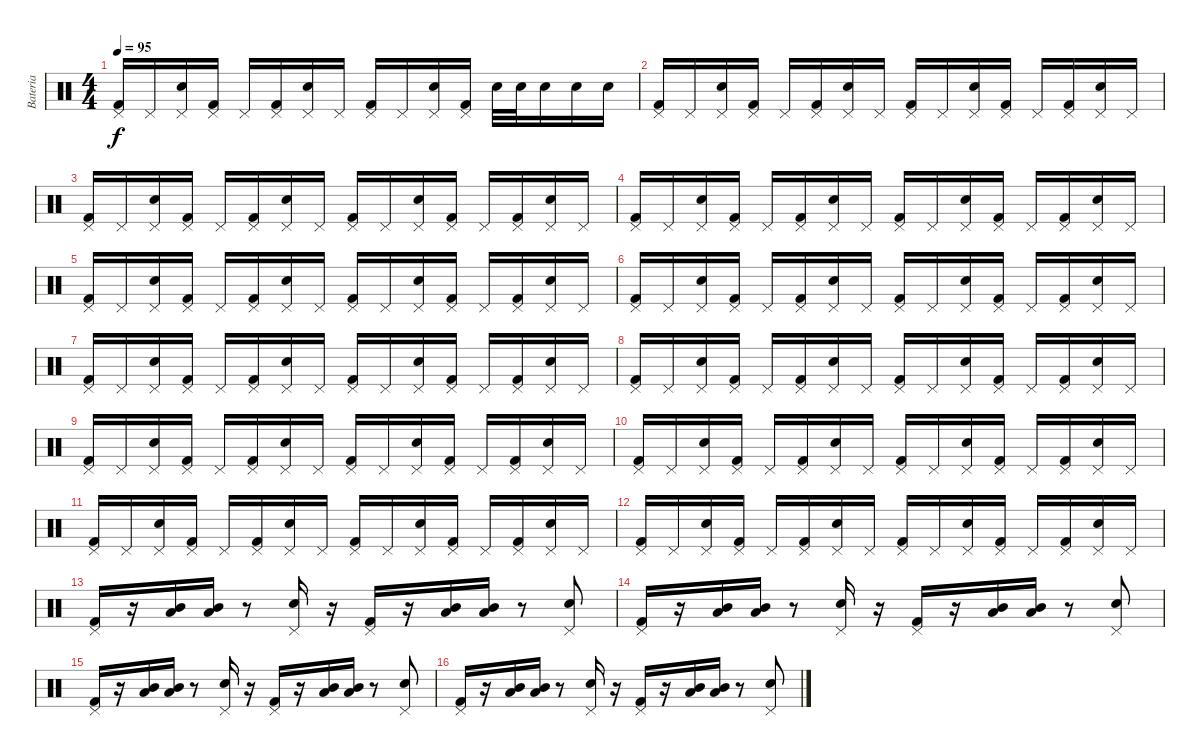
\track ("Bateria" "Bateria") {instrument percussion}
\staff {score}
\articulation defaults
\ts (4 4)
\tempo 95
\clef neutral
\ks c
("Pedal Hi-Hat (hit)" "Kick (hit) 2").16{dy f} "Pedal Hi-Hat (hit)".16 ("Pedal Hi-Hat (hit)" "Electric Snare (hit)").16 ("Pedal Hi-Hat (hit)" "Kick (hit) 2").16 "Pedal Hi-Hat (hit)".16 ("Pedal Hi-Hat (hit)" "Kick (hit) 2").16 ("Pedal Hi-Hat (hit)" "Electric Snare (hit)").16 "Pedal Hi-Hat (hit)".16 ("Pedal Hi-Hat (hit)" "Kick (hit) 2").16 "Pedal Hi-Hat (hit)".16 ("Pedal Hi-Hat (hit)" "Electric Snare (hit)").16 ("Pedal Hi-Hat (hit)" "Kick (hit) 2").16 "Electric Snare (hit)".32 "Electric Snare (hit)".32 "Electric Snare (hit)".16 "Electric Snare (hit)".16 "Electric Snare (hit)".16 |
("Pedal Hi-Hat (hit)" "Kick (hit) 2").16 "Pedal Hi-Hat (hit)".16 ("Pedal Hi-Hat (hit)" "Electric Snare (hit)").16 ("Pedal Hi-Hat (hit)" "Kick (hit) 2").16 "Pedal Hi-Hat (hit)".16 ("Pedal Hi-Hat (hit)" "Kick (hit) 2").16 ("Pedal Hi-Hat (hit)" "Electric Snare (hit)").16 "Pedal Hi-Hat (hit)".16 ("Pedal Hi-Hat (hit)" "Kick (hit) 2").16 "Pedal Hi-Hat (hit)".16 ("Pedal Hi-Hat (hit)" "Electric Snare (hit)").16 ("Pedal Hi-Hat (hit)" "Kick (hit) 2").16 "Pedal Hi-Hat (hit)".16 ("Pedal Hi-Hat (hit)" "Kick (hit) 2").16 ("Pedal Hi-Hat (hit)" "Electric Snare (hit)").16 "Pedal Hi-Hat (hit)".16 |
("Pedal Hi-Hat (hit)" "Kick (hit) 2").16 "Pedal Hi-Hat (hit)".16 ("Pedal Hi-Hat (hit)" "Electric Snare (hit)").16 ("Pedal Hi-Hat (hit)" "Kick (hit) 2").16 "Pedal Hi-Hat (hit)".16 ("Pedal Hi-Hat (hit)" "Kick (hit) 2").16 ("Pedal Hi-Hat (hit)" "Electric Snare (hit)").16 "Pedal Hi-Hat (hit)".16 ("Pedal Hi-Hat (hit)" "Kick (hit) 2").16 "Pedal Hi-Hat (hit)".16 ("Pedal Hi-Hat (hit)" "Electric Snare (hit)").16 ("Pedal Hi-Hat (hit)" "Kick (hit) 2").16 "Pedal Hi-Hat (hit)".16 ("Pedal Hi-Hat (hit)" "Kick (hit) 2").16 ("Pedal Hi-Hat (hit)" "Electric Snare (hit)").16 "Pedal Hi-Hat (hit)".16 |
("Pedal Hi-Hat (hit)" "Kick (hit) 2").16 "Pedal Hi-Hat (hit)".16 ("Pedal Hi-Hat (hit)" "Electric Snare (hit)").16 ("Pedal Hi-Hat (hit)" "Kick (hit) 2").16 "Pedal Hi-Hat (hit)".16 ("Pedal Hi-Hat (hit)" "Kick (hit) 2").16 ("Pedal Hi-Hat (hit)" "Electric Snare (hit)").16 "Pedal Hi-Hat (hit)".16 ("Pedal Hi-Hat (hit)" "Kick (hit) 2").16 "Pedal Hi-Hat (hit)".16 ("Pedal Hi-Hat (hit)" "Electric Snare (hit)").16 ("Pedal Hi-Hat (hit)" "Kick (hit) 2").16 "Pedal Hi-Hat (hit)".16 ("Pedal Hi-Hat (hit)" "Kick (hit) 2").16 ("Pedal Hi-Hat (hit)" "Electric Snare (hit)").16 "Pedal Hi-Hat (hit)".16 |
("Pedal Hi-Hat (hit)" "Kick (hit) 2").16 "Pedal Hi-Hat (hit)".16 ("Pedal Hi-Hat (hit)" "Electric Snare (hit)").16 ("Pedal Hi-Hat (hit)" "Kick (hit) 2").16 "Pedal Hi-Hat (hit)".16 ("Pedal Hi-Hat (hit)" "Kick (hit) 2").16 ("Pedal Hi-Hat (hit)" "Electric Snare (hit)").16 "Pedal Hi-Hat (hit)".16 ("Pedal Hi-Hat (hit)" "Kick (hit) 2").16 "Pedal Hi-Hat (hit)".16 ("Pedal Hi-Hat (hit)" "Electric Snare (hit)").16 ("Pedal Hi-Hat (hit)" "Kick (hit) 2").16 "Pedal Hi-Hat (hit)".16 ("Pedal Hi-Hat (hit)" "Kick (hit) 2").16 ("Pedal Hi-Hat (hit)" "Electric Snare (hit)").16 "Pedal Hi-Hat (hit)".16 |
("Pedal Hi-Hat (hit)" "Kick (hit) 2").16 "Pedal Hi-Hat (hit)".16 ("Pedal Hi-Hat (hit)" "Electric Snare (hit)").16 ("Pedal Hi-Hat (hit)" "Kick (hit) 2").16 "Pedal Hi-Hat (hit)".16 ("Pedal Hi-Hat (hit)" "Kick (hit) 2").16 ("Pedal Hi-Hat (hit)" "Electric Snare (hit)").16 "Pedal Hi-Hat (hit)".16 ("Pedal Hi-Hat (hit)" "Kick (hit) 2").16 "Pedal Hi-Hat (hit)".16 ("Pedal Hi-Hat (hit)" "Electric Snare (hit)").16 ("Pedal Hi-Hat (hit)" "Kick (hit) 2").16 "Pedal Hi-Hat (hit)".16 ("Pedal Hi-Hat (hit)" "Kick (hit) 2").16 ("Pedal Hi-Hat (hit)" "Electric Snare (hit)").16 "Pedal Hi-Hat (hit)".16 |
("Pedal Hi-Hat (hit)" "Kick (hit) 2").16 "Pedal Hi-Hat (hit)".16 ("Pedal Hi-Hat (hit)" "Electric Snare (hit)").16 ("Pedal Hi-Hat (hit)" "Kick (hit) 2").16 "Pedal Hi-Hat (hit)".16 ("Pedal Hi-Hat (hit)" "Kick (hit) 2").16 ("Pedal Hi-Hat (hit)" "Electric Snare (hit)").16 "Pedal Hi-Hat (hit)".16 ("Pedal Hi-Hat (hit)" "Kick (hit) 2").16 "Pedal Hi-Hat (hit)".16 ("Pedal Hi-Hat (hit)" "Electric Snare (hit)").16 ("Pedal Hi-Hat (hit)" "Kick (hit) 2").16 "Pedal Hi-Hat (hit)".16 ("Pedal Hi-Hat (hit)" "Kick (hit) 2").16 ("Pedal Hi-Hat (hit)" "Electric Snare (hit)").16 "Pedal Hi-Hat (hit)".16 |
("Pedal Hi-Hat (hit)" "Kick (hit) 2").16 "Pedal Hi-Hat (hit)".16 ("Pedal Hi-Hat (hit)" "Electric Snare (hit)").16 ("Pedal Hi-Hat (hit)" "Kick (hit) 2").16 "Pedal Hi-Hat (hit)".16 ("Pedal Hi-Hat (hit)" "Kick (hit) 2").16 ("Pedal Hi-Hat (hit)" "Electric Snare (hit)").16 "Pedal Hi-Hat (hit)".16 ("Pedal Hi-Hat (hit)" "Kick (hit) 2").16 "Pedal Hi-Hat (hit)".16 ("Pedal Hi-Hat (hit)" "Electric Snare (hit)").16 ("Pedal Hi-Hat (hit)" "Kick (hit) 2").16 "Pedal Hi-Hat (hit)".16 ("Pedal Hi-Hat (hit)" "Kick (hit) 2").16 ("Pedal Hi-Hat (hit)" "Electric Snare (hit)").16 "Pedal Hi-Hat (hit)".16 |
("Pedal Hi-Hat (hit)" "Kick (hit) 2").16 "Pedal Hi-Hat (hit)".16 ("Pedal Hi-Hat (hit)" "Electric Snare (hit)").16 ("Pedal Hi-Hat (hit)" "Kick (hit) 2").16 "Pedal Hi-Hat (hit)".16 ("Pedal Hi-Hat (hit)" "Kick (hit) 2").16 ("Pedal Hi-Hat (hit)" "Electric Snare (hit)").16 "Pedal Hi-Hat (hit)".16 ("Pedal Hi-Hat (hit)" "Kick (hit) 2").16 "Pedal Hi-Hat (hit)".16 ("Pedal Hi-Hat (hit)" "Electric Snare (hit)").16 ("Pedal Hi-Hat (hit)" "Kick (hit) 2").16 "Pedal Hi-Hat (hit)".16 ("Pedal Hi-Hat (hit)" "Kick (hit) 2").16 ("Pedal Hi-Hat (hit)" "Electric Snare (hit)").16 "Pedal Hi-Hat (hit)".16 |
("Pedal Hi-Hat (hit)" "Kick (hit) 2").16 "Pedal Hi-Hat (hit)".16 ("Pedal Hi-Hat (hit)" "Electric Snare (hit)").16 ("Pedal Hi-Hat (hit)" "Kick (hit) 2").16 "Pedal Hi-Hat (hit)".16 ("Pedal Hi-Hat (hit)" "Kick (hit) 2").16 ("Pedal Hi-Hat (hit)" "Electric Snare (hit)").16 "Pedal Hi-Hat (hit)".16 ("Pedal Hi-Hat (hit)" "Kick (hit) 2").16 "Pedal Hi-Hat (hit)".16 ("Pedal Hi-Hat (hit)" "Electric Snare (hit)").16 ("Pedal Hi-Hat (hit)" "Kick (hit) 2").16 "Pedal Hi-Hat (hit)".16 ("Pedal Hi-Hat (hit)" "Kick (hit) 2").16 ("Pedal Hi-Hat (hit)" "Electric Snare (hit)").16 "Pedal Hi-Hat (hit)".16 |
("Pedal Hi-Hat (hit)" "Kick (hit) 2").16 "Pedal Hi-Hat (hit)".16 ("Pedal Hi-Hat (hit)" "Electric Snare (hit)").16 ("Pedal Hi-Hat (hit)" "Kick (hit) 2").16 "Pedal Hi-Hat (hit)".16 ("Pedal Hi-Hat (hit)" "Kick (hit) 2").16 ("Pedal Hi-Hat (hit)" "Electric Snare (hit)").16 "Pedal Hi-Hat (hit)".16 ("Pedal Hi-Hat (hit)" "Kick (hit) 2").16 "Pedal Hi-Hat (hit)".16 ("Pedal Hi-Hat (hit)" "Electric Snare (hit)").16 ("Pedal Hi-Hat (hit)" "Kick (hit) 2").16 "Pedal Hi-Hat (hit)".16 ("Pedal Hi-Hat (hit)" "Kick (hit) 2").16 ("Pedal Hi-Hat (hit)" "Electric Snare (hit)").16 "Pedal Hi-Hat (hit)".16 |
("Pedal Hi-Hat (hit)" "Kick (hit) 2").16 "Pedal Hi-Hat (hit)".16 ("Pedal Hi-Hat (hit)" "Electric Snare (hit)").16 ("Pedal Hi-Hat (hit)" "Kick (hit) 2").16 "Pedal Hi-Hat (hit)".16 ("Pedal Hi-Hat (hit)" "Kick (hit) 2").16 ("Pedal Hi-Hat (hit)" "Electric Snare (hit)").16 "Pedal Hi-Hat (hit)".16 ("Pedal Hi-Hat (hit)" "Kick (hit) 2").16 "Pedal Hi-Hat (hit)".16 ("Pedal Hi-Hat (hit)" "Electric Snare (hit)").16 ("Pedal Hi-Hat (hit)" "Kick (hit) 2").16 "Pedal Hi-Hat (hit)".16 ("Pedal Hi-Hat (hit)" "Kick (hit) 2").16 ("Pedal Hi-Hat (hit)" "Electric Snare (hit)").16 "Pedal Hi-Hat (hit)".16 |
("Pedal Hi-Hat (hit)" "Kick (hit) 2").16 r.16 ("Mid Tom (hit)" "Low Tom (hit)").16 ("Mid Tom (hit)" "Low Tom (hit)").16 r.8 ("Pedal Hi-Hat (hit)" "Electric Snare (hit)").16 r.16 ("Pedal Hi-Hat (hit)" "Kick (hit) 2").16 r.16 ("Mid Tom (hit)" "Low Tom (hit)").16 ("Mid Tom (hit)" "Low Tom (hit)").16 r.8 ("Pedal Hi-Hat (hit)" "Electric Snare (hit)").8 |
("Pedal Hi-Hat (hit)" "Kick (hit) 2").16 r.16 ("Mid Tom (hit)" "Low Tom (hit)").16 ("Mid Tom (hit)" "Low Tom (hit)").16 r.8 ("Pedal Hi-Hat (hit)" "Electric Snare (hit)").16 r.16 ("Pedal Hi-Hat (hit)" "Kick (hit) 2").16 r.16 ("Mid Tom (hit)" "Low Tom (hit)").16 ("Mid Tom (hit)" "Low Tom (hit)").16 r.8 ("Pedal Hi-Hat (hit)" "Electric Snare (hit)").8 |
("Pedal Hi-Hat (hit)" "Kick (hit) 2").16 r.16 ("Mid Tom (hit)" "Low Tom (hit)").16 ("Mid Tom (hit)" "Low Tom (hit)").16 r.8 ("Pedal Hi-Hat (hit)" "Electric Snare (hit)").16 r.16 ("Pedal Hi-Hat (hit)" "Kick (hit) 2").16 r.16 ("Mid Tom (hit)" "Low Tom (hit)").16 ("Mid Tom (hit)" "Low Tom (hit)").16 r.8 ("Pedal Hi-Hat (hit)" "Electric Snare (hit)").8 |
("Pedal Hi-Hat (hit)" "Kick (hit) 2").16 r.16 ("Mid Tom (hit)" "Low Tom (hit)").16 ("Mid Tom (hit)" "Low Tom (hit)").16 r.8 ("Pedal Hi-Hat (hit)" "Electric Snare (hit)").16 r.16 ("Pedal Hi-Hat (hit)" "Kick (hit) 2").16 r.16 ("Mid Tom (hit)" "Low Tom (hit)").16 ("Mid Tom (hit)" "Low Tom (hit)").16 r.8 ("Pedal Hi-Hat (hit)" "Electric Snare (hit)").8
